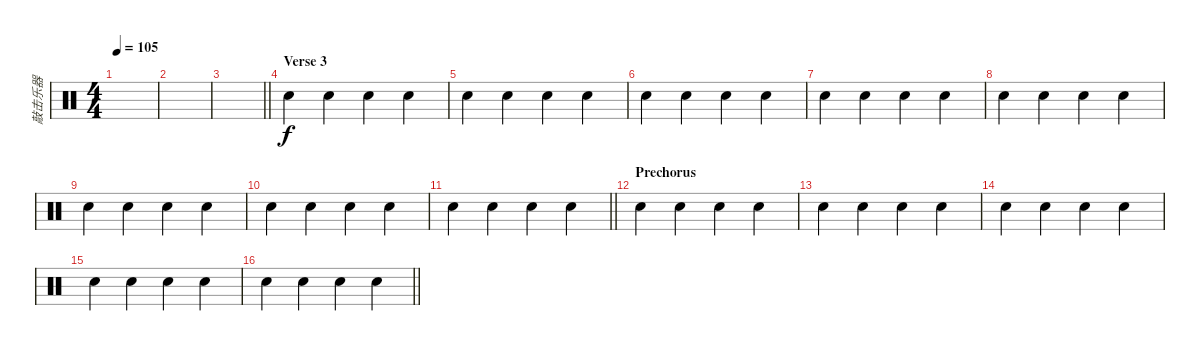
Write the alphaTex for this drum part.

\track ("敲击乐器" "敲击乐器") {instrument percussion}
\staff {score}
\articulation defaults
\ts (4 4)
\tempo 105
\clef neutral
\ks c
|
|
\barLineRight lightlight
|
\section ("" "Verse 3")
"Hand Clap (hit)".4 "Hand Clap (hit)".4 "Hand Clap (hit)".4 "Hand Clap (hit)".4 |
"Hand Clap (hit)".4 "Hand Clap (hit)".4 "Hand Clap (hit)".4 "Hand Clap (hit)".4 |
"Hand Clap (hit)".4 "Hand Clap (hit)".4 "Hand Clap (hit)".4 "Hand Clap (hit)".4 |
"Hand Clap (hit)".4 "Hand Clap (hit)".4 "Hand Clap (hit)".4 "Hand Clap (hit)".4 |
"Hand Clap (hit)".4 "Hand Clap (hit)".4 "Hand Clap (hit)".4 "Hand Clap (hit)".4 |
"Hand Clap (hit)".4 "Hand Clap (hit)".4 "Hand Clap (hit)".4 "Hand Clap (hit)".4 |
"Hand Clap (hit)".4 "Hand Clap (hit)".4 "Hand Clap (hit)".4 "Hand Clap (hit)".4 |
\barLineRight lightlight "Hand Clap (hit)".4 "Hand Clap (hit)".4 "Hand Clap (hit)".4 "Hand Clap (hit)".4
|
\section ("" "Prechorus")
"Hand Clap (hit)".4 "Hand Clap (hit)".4 "Hand Clap (hit)".4 "Hand Clap (hit)".4 |
"Hand Clap (hit)".4 "Hand Clap (hit)".4 "Hand Clap (hit)".4 "Hand Clap (hit)".4 |
"Hand Clap (hit)".4 "Hand Clap (hit)".4 "Hand Clap (hit)".4 "Hand Clap (hit)".4 |
"Hand Clap (hit)".4 "Hand Clap (hit)".4 "Hand Clap (hit)".4 "Hand Clap (hit)".4 |
\barLineRight lightlight "Hand Clap (hit)".4 "Hand Clap (hit)".4 "Hand Clap (hit)".4 "Hand Clap (hit)".4
